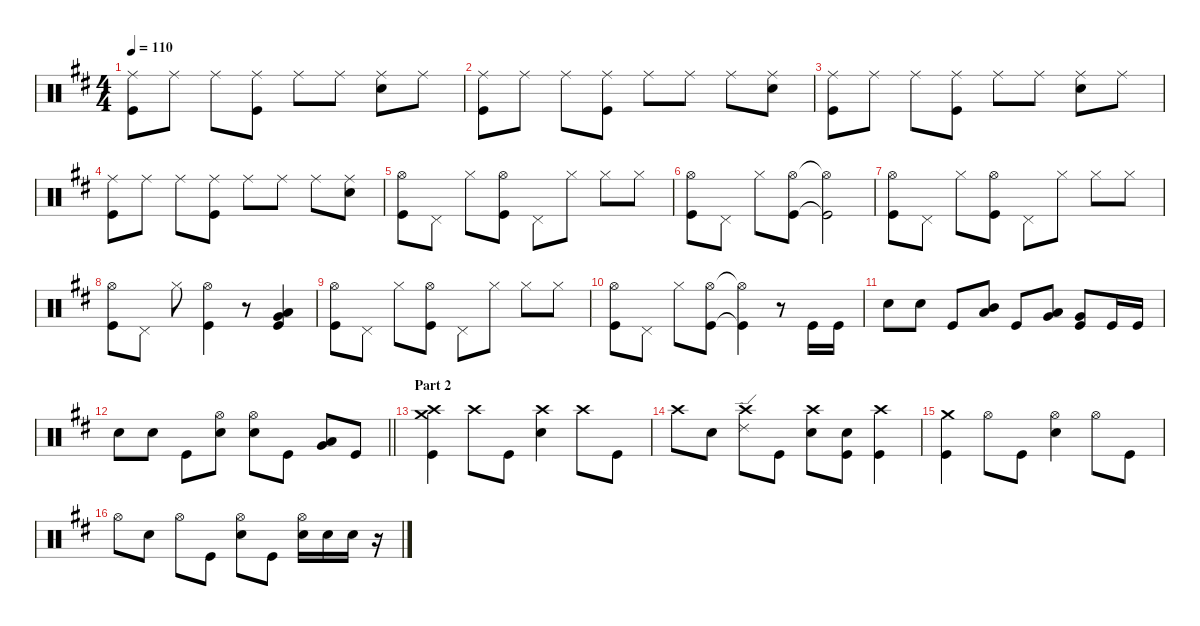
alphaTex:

\defaultSystemsLayout 4
\hideDynamics
\bracketExtendMode nobrackets
\singleTrackTrackNamePolicy hidden
\multiTrackTrackNamePolicy hidden
\firstSystemTrackNameMode fullname
\firstSystemTrackNameOrientation horizontal
\otherSystemsTrackNameOrientation horizontal
\track ("Aaron Harris" "drm.") {defaultSystemsLayout 4 instrument percussion}
\staff {score}
\articulation defaults
\ts (4 4)
\tempo 110
\clef neutral
\ks bminor
("Ride (middle)"{acc forcenatural} "Kick (hit)"{acc forcenatural}).8{dy f beam Down} "Ride (middle)"{acc forcenatural}.8{beam Down} "Ride (middle)"{acc forcenatural}.8{beam Down} ("Ride (middle)"{acc forcenatural} "Kick (hit)"{acc forcenatural}).8{beam Down} "Ride (middle)"{acc forcenatural}.8{beam Down} "Ride (middle)"{acc forcenatural}.8{beam Down} ("Ride (middle)"{acc forcenatural} "Snare (hit) 2"{acc forcenatural}).8{beam Down} "Ride (middle)"{acc forcenatural}.8{beam Down} |
("Ride (middle)"{acc forcenatural} "Kick (hit)"{acc forcenatural}).8{beam Down} "Ride (middle)"{acc forcenatural}.8{beam Down} "Ride (middle)"{acc forcenatural}.8{beam Down} ("Ride (middle)"{acc forcenatural} "Kick (hit)"{acc forcenatural}).8{beam Down} "Ride (middle)"{acc forcenatural}.8{beam Down} "Ride (middle)"{acc forcenatural}.8{beam Down} "Ride (middle)"{acc forcenatural}.8{beam Down} ("Ride (middle)"{acc forcenatural} "Snare (hit) 2"{acc forcenatural}).8{beam Down} |
("Ride (middle)"{acc forcenatural} "Kick (hit)"{acc forcenatural}).8{beam Down} "Ride (middle)"{acc forcenatural}.8{beam Down} "Ride (middle)"{acc forcenatural}.8{beam Down} ("Ride (middle)"{acc forcenatural} "Kick (hit)"{acc forcenatural}).8{beam Down} "Ride (middle)"{acc forcenatural}.8{beam Down} "Ride (middle)"{acc forcenatural}.8{beam Down} ("Ride (middle)"{acc forcenatural} "Snare (hit) 2"{acc forcenatural}).8{beam Down} "Ride (middle)"{acc forcenatural}.8{beam Down} |
("Ride (middle)"{acc forcenatural} "Kick (hit)"{acc forcenatural}).8{beam Down} "Ride (middle)"{acc forcenatural}.8{beam Down} "Ride (middle)"{acc forcenatural}.8{beam Down} ("Ride (middle)"{acc forcenatural} "Kick (hit)"{acc forcenatural}).8{beam Down} "Ride (middle)"{acc forcenatural}.8{beam Down} "Ride (middle)"{acc forcenatural}.8{beam Down} "Ride (middle)"{acc forcenatural}.8{beam Down} ("Ride (middle)"{acc forcenatural} "Snare (hit) 2"{acc forcenatural}).8{beam Down} |
("Hi-Hat (open)"{acc forcenatural} "Kick (hit)"{acc forcenatural}).8{beam Down} "Pedal Hi-Hat (hit)"{acc forcenatural}.8{beam Down} "Hi-Hat (closed)"{acc forcenatural}.8{beam Down} ("Hi-Hat (open)"{acc forcenatural} "Kick (hit)"{acc forcenatural}).8{beam Down} "Pedal Hi-Hat (hit)"{acc forcenatural}.8{beam Down} "Hi-Hat (closed)"{acc forcenatural}.8{beam Down} "Hi-Hat (closed)"{acc forcenatural}.8{beam Down} "Hi-Hat (closed)"{acc forcenatural}.8{beam Down} |
("Hi-Hat (open)"{acc forcenatural} "Kick (hit)"{acc forcenatural}).8{beam Down} "Pedal Hi-Hat (hit)"{acc forcenatural}.8{beam Down} "Hi-Hat (closed)"{acc forcenatural}.8{beam Down} ("Hi-Hat (open)"{acc forcenatural} "Kick (hit)"{acc forcenatural}).8{beam Down} ("Hi-Hat (open)"{t acc forcenatural} "Kick (hit)"{t acc forcenatural}).2{beam Down} |
("Hi-Hat (open)"{acc forcenatural} "Kick (hit)"{acc forcenatural}).8{beam Down} "Pedal Hi-Hat (hit)"{acc forcenatural}.8{beam Down} "Hi-Hat (closed)"{acc forcenatural}.8{beam Down} ("Hi-Hat (open)"{acc forcenatural} "Kick (hit)"{acc forcenatural}).8{beam Down} "Pedal Hi-Hat (hit)"{acc forcenatural}.8{beam Down} "Hi-Hat (closed)"{acc forcenatural}.8{beam Down} "Hi-Hat (closed)"{acc forcenatural}.8{beam Down} "Hi-Hat (closed)"{acc forcenatural}.8{beam Down} |
("Hi-Hat (open)"{acc forcenatural} "Kick (hit)"{acc forcenatural}).8{beam Down} "Pedal Hi-Hat (hit)"{acc forcenatural}.8{beam Down} "Hi-Hat (closed)"{acc forcenatural}.8{beam Down} ("Hi-Hat (open)"{acc forcenatural} "Kick (hit)"{acc forcenatural}).4{beam Down} r.8{beam Down} ("Low Tom (hit)"{acc forcenatural} "Very Low Tom (hit)"{acc forcenatural} "Kick (hit)"{acc forcenatural}).4{beam Up} |
("Hi-Hat (open)"{acc forcenatural} "Kick (hit)"{acc forcenatural}).8{beam Down} "Pedal Hi-Hat (hit)"{acc forcenatural}.8{beam Down} "Hi-Hat (closed)"{acc forcenatural}.8{beam Down} ("Hi-Hat (open)"{acc forcenatural} "Kick (hit)"{acc forcenatural}).8{beam Down} "Pedal Hi-Hat (hit)"{acc forcenatural}.8{beam Down} "Hi-Hat (closed)"{acc forcenatural}.8{beam Down} "Hi-Hat (closed)"{acc forcenatural}.8{beam Down} "Hi-Hat (closed)"{acc forcenatural}.8{beam Down} |
("Hi-Hat (open)"{acc forcenatural} "Kick (hit)"{acc forcenatural}).8{beam Down} "Pedal Hi-Hat (hit)"{acc forcenatural}.8{beam Down} "Hi-Hat (closed)"{acc forcenatural}.8{beam Down} ("Hi-Hat (open)"{acc forcenatural} "Kick (hit)"{acc forcenatural}).8{beam Down} ("Hi-Hat (open)"{t acc forcenatural} "Kick (hit)"{t acc forcenatural}).4{beam Down} r.8{beam Down} "Kick (hit)"{acc forcenatural}.16{beam Up} "Kick (hit)"{acc forcenatural}.16{beam Up} |
"Snare (hit) 2"{acc forcenatural}.8{beam Down} "Snare (hit) 2"{acc forcenatural}.8{beam Down} "Kick (hit)"{acc forcenatural}.8{beam Up} ("Low Tom (hit)"{acc forcenatural} "Mid Tom (hit)"{acc forcenatural}).8{beam Up} "Kick (hit)"{acc forcenatural}.8{beam Up} ("Very Low Tom (hit)"{acc forcenatural} "Low Tom (hit)"{acc forcenatural}).8{beam Up} ("Very Low Tom (hit)"{acc forcenatural} "Kick (hit)"{acc forcenatural}).8{beam Up} "Kick (hit)"{acc forcenatural}.16{beam Up} "Kick (hit)"{acc forcenatural}.16{beam Up} |
\barLineRight lightlight "Snare (hit) 2"{acc forcenatural}.8{beam Down} "Snare (hit) 2"{acc forcenatural}.8{beam Down} "Kick (hit)"{acc forcenatural}.8{beam Down}
("Hi-Hat (open)"{acc forcenatural} "Snare (hit) 2"{acc forcenatural}).8{beam Down} ("Hi-Hat (open)"{acc forcenatural} "Snare (hit) 2"{acc forcenatural}).8{beam Down} "Kick (hit)"{acc forcenatural}.8{beam Down} ("Very Low Tom (hit)"{acc forcenatural} "Low Tom (hit)"{acc forcenatural}).8{beam Up} "Kick (hit)"{acc forcenatural}.8{beam Up} |
\section ("" "Part 2")
("Crash high (hit)"{acc forcenatural} "Crash medium (hit)"{acc forcenatural} "Kick (hit)"{acc forcenatural}).4{beam Down} "Crash high (hit)"{acc forcenatural}.8{beam Down} "Kick (hit)"{acc forcenatural}.8{beam Down} ("Crash high (hit)"{acc forcenatural} "Snare (hit) 2"{acc forcenatural}).4{beam Down} "Crash high (hit)"{acc forcenatural}.8{beam Down} "Kick (hit)"{acc forcenatural}.8{beam Down} |
"Crash high (hit)"{acc forcenatural}.8{beam Down} "Snare (hit) 2"{acc forcenatural}.8{beam Down} ("Crash high (hit)"{acc forcenatural} "Ride (edge) 2"{acc forcenatural}).8{beam Down} "Kick (hit)"{acc forcenatural}.8{beam Down} ("Crash high (hit)"{acc forcenatural} "Snare (hit) 2"{acc forcenatural}).8{beam Down} ("Snare (hit) 2"{acc forcenatural} "Kick (hit)"{acc forcenatural}).8{beam Down} ("Crash high (hit)"{acc forcenatural} "Kick (hit)"{acc forcenatural}).4{beam Down} |
("Crash medium (hit)"{acc forcenatural} "Kick (hit)"{acc forcenatural}).4{beam Down} "Hi-Hat (open)"{acc forcenatural}.8{beam Down} "Kick (hit)"{acc forcenatural}.8{beam Down} ("Hi-Hat (open)"{acc forcenatural} "Snare (hit) 2"{acc forcenatural}).4{beam Down} "Hi-Hat (open)"{acc forcenatural}.8{beam Down} "Kick (hit)"{acc forcenatural}.8{beam Down} |
"Hi-Hat (open)"{acc forcenatural}.8{beam Down} "Snare (hit) 2"{acc forcenatural}.8{beam Down} "Hi-Hat (open)"{acc forcenatural}.8{beam Down} "Kick (hit)"{acc forcenatural}.8{beam Down} ("Hi-Hat (open)"{acc forcenatural} "Snare (hit) 2"{acc forcenatural}).8{beam Down} "Kick (hit)"{acc forcenatural}.8{beam Down} ("Hi-Hat (open)"{acc forcenatural} "Snare (hit) 2"{acc forcenatural}).16{beam Down} "Snare (hit) 2"{acc forcenatural}.16{beam Down} "Snare (hit) 2"{acc forcenatural}.16{beam Down} r.16{beam Down}
